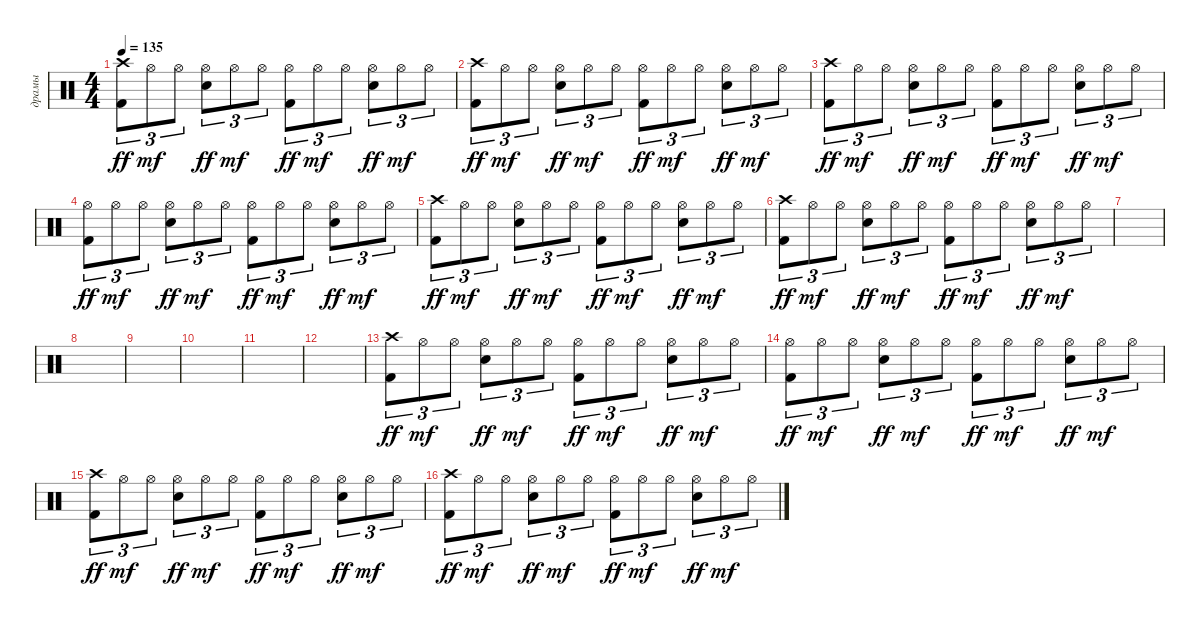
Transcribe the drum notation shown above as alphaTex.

\track ("драмы" "драмы") {instrument percussion}
\staff {score}
\articulation defaults
\ts (4 4)
\tempo 135
\clef neutral
\ks c
("Crash high (hit)" "Kick (hit) 2").8{tu (3 2) dy ff} "Hi-Hat (open)".8{tu (3 2) dy mf} "Hi-Hat (open)".8{tu (3 2)} ("Hi-Hat (open)" "Snare (hit) 2").8{tu (3 2) dy ff} "Hi-Hat (open)".8{tu (3 2) dy mf} "Hi-Hat (open)".8{tu (3 2)} ("Hi-Hat (open)" "Kick (hit) 2").8{tu (3 2) dy ff} "Hi-Hat (open)".8{tu (3 2) dy mf} "Hi-Hat (open)".8{tu (3 2)} ("Hi-Hat (open)" "Snare (hit) 2").8{tu (3 2) dy ff} "Hi-Hat (open)".8{tu (3 2) dy mf} "Hi-Hat (open)".8{tu (3 2)} |
("Crash high (hit)" "Kick (hit) 2").8{tu (3 2) dy ff} "Hi-Hat (open)".8{tu (3 2) dy mf} "Hi-Hat (open)".8{tu (3 2)} ("Hi-Hat (open)" "Snare (hit) 2").8{tu (3 2) dy ff} "Hi-Hat (open)".8{tu (3 2) dy mf} "Hi-Hat (open)".8{tu (3 2)} ("Hi-Hat (open)" "Kick (hit) 2").8{tu (3 2) dy ff} "Hi-Hat (open)".8{tu (3 2) dy mf} "Hi-Hat (open)".8{tu (3 2)} ("Hi-Hat (open)" "Snare (hit) 2").8{tu (3 2) dy ff} "Hi-Hat (open)".8{tu (3 2) dy mf} "Hi-Hat (open)".8{tu (3 2)} |
("Crash high (hit)" "Kick (hit) 2").8{tu (3 2) dy ff} "Hi-Hat (open)".8{tu (3 2) dy mf} "Hi-Hat (open)".8{tu (3 2)} ("Hi-Hat (open)" "Snare (hit) 2").8{tu (3 2) dy ff} "Hi-Hat (open)".8{tu (3 2) dy mf} "Hi-Hat (open)".8{tu (3 2)} ("Hi-Hat (open)" "Kick (hit) 2").8{tu (3 2) dy ff} "Hi-Hat (open)".8{tu (3 2) dy mf} "Hi-Hat (open)".8{tu (3 2)} ("Hi-Hat (open)" "Snare (hit) 2").8{tu (3 2) dy ff} "Hi-Hat (open)".8{tu (3 2) dy mf} "Hi-Hat (open)".8{tu (3 2)} |
("Hi-Hat (open)" "Kick (hit) 2").8{tu (3 2) dy ff} "Hi-Hat (open)".8{tu (3 2) dy mf} "Hi-Hat (open)".8{tu (3 2)} ("Hi-Hat (open)" "Snare (hit) 2").8{tu (3 2) dy ff} "Hi-Hat (open)".8{tu (3 2) dy mf} "Hi-Hat (open)".8{tu (3 2)} ("Hi-Hat (open)" "Kick (hit) 2").8{tu (3 2) dy ff} "Hi-Hat (open)".8{tu (3 2) dy mf} "Hi-Hat (open)".8{tu (3 2)} ("Hi-Hat (open)" "Snare (hit) 2").8{tu (3 2) dy ff} "Hi-Hat (open)".8{tu (3 2) dy mf} "Hi-Hat (open)".8{tu (3 2)} |
("Crash high (hit)" "Kick (hit) 2").8{tu (3 2) dy ff} "Hi-Hat (open)".8{tu (3 2) dy mf} "Hi-Hat (open)".8{tu (3 2)} ("Hi-Hat (open)" "Snare (hit) 2").8{tu (3 2) dy ff} "Hi-Hat (open)".8{tu (3 2) dy mf} "Hi-Hat (open)".8{tu (3 2)} ("Hi-Hat (open)" "Kick (hit) 2").8{tu (3 2) dy ff} "Hi-Hat (open)".8{tu (3 2) dy mf} "Hi-Hat (open)".8{tu (3 2)} ("Hi-Hat (open)" "Snare (hit) 2").8{tu (3 2) dy ff} "Hi-Hat (open)".8{tu (3 2) dy mf} "Hi-Hat (open)".8{tu (3 2)} |
("Crash high (hit)" "Kick (hit) 2").8{tu (3 2) dy ff} "Hi-Hat (open)".8{tu (3 2) dy mf} "Hi-Hat (open)".8{tu (3 2)} ("Hi-Hat (open)" "Snare (hit) 2").8{tu (3 2) dy ff} "Hi-Hat (open)".8{tu (3 2) dy mf} "Hi-Hat (open)".8{tu (3 2)} ("Hi-Hat (open)" "Kick (hit) 2").8{tu (3 2) dy ff} "Hi-Hat (open)".8{tu (3 2) dy mf} "Hi-Hat (open)".8{tu (3 2)} ("Hi-Hat (open)" "Snare (hit) 2").8{tu (3 2) dy ff} "Hi-Hat (open)".8{tu (3 2) dy mf} "Hi-Hat (open)".8{tu (3 2)} |
|
|
|
|
|
|
("Crash high (hit)" "Kick (hit) 2").8{tu (3 2) dy ff} "Hi-Hat (open)".8{tu (3 2) dy mf} "Hi-Hat (open)".8{tu (3 2)} ("Hi-Hat (open)" "Snare (hit) 2").8{tu (3 2) dy ff} "Hi-Hat (open)".8{tu (3 2) dy mf} "Hi-Hat (open)".8{tu (3 2)} ("Hi-Hat (open)" "Kick (hit) 2").8{tu (3 2) dy ff} "Hi-Hat (open)".8{tu (3 2) dy mf} "Hi-Hat (open)".8{tu (3 2)} ("Hi-Hat (open)" "Snare (hit) 2").8{tu (3 2) dy ff} "Hi-Hat (open)".8{tu (3 2) dy mf} "Hi-Hat (open)".8{tu (3 2)} |
("Hi-Hat (open)" "Kick (hit) 2").8{tu (3 2) dy ff} "Hi-Hat (open)".8{tu (3 2) dy mf} "Hi-Hat (open)".8{tu (3 2)} ("Hi-Hat (open)" "Snare (hit) 2").8{tu (3 2) dy ff} "Hi-Hat (open)".8{tu (3 2) dy mf} "Hi-Hat (open)".8{tu (3 2)} ("Hi-Hat (open)" "Kick (hit) 2").8{tu (3 2) dy ff} "Hi-Hat (open)".8{tu (3 2) dy mf} "Hi-Hat (open)".8{tu (3 2)} ("Hi-Hat (open)" "Snare (hit) 2").8{tu (3 2) dy ff} "Hi-Hat (open)".8{tu (3 2) dy mf} "Hi-Hat (open)".8{tu (3 2)} |
("Crash high (hit)" "Kick (hit) 2").8{tu (3 2) dy ff} "Hi-Hat (open)".8{tu (3 2) dy mf} "Hi-Hat (open)".8{tu (3 2)} ("Hi-Hat (open)" "Snare (hit) 2").8{tu (3 2) dy ff} "Hi-Hat (open)".8{tu (3 2) dy mf} "Hi-Hat (open)".8{tu (3 2)} ("Hi-Hat (open)" "Kick (hit) 2").8{tu (3 2) dy ff} "Hi-Hat (open)".8{tu (3 2) dy mf} "Hi-Hat (open)".8{tu (3 2)} ("Hi-Hat (open)" "Snare (hit) 2").8{tu (3 2) dy ff} "Hi-Hat (open)".8{tu (3 2) dy mf} "Hi-Hat (open)".8{tu (3 2)} |
("Crash high (hit)" "Kick (hit) 2").8{tu (3 2) dy ff} "Hi-Hat (open)".8{tu (3 2) dy mf} "Hi-Hat (open)".8{tu (3 2)} ("Hi-Hat (open)" "Snare (hit) 2").8{tu (3 2) dy ff} "Hi-Hat (open)".8{tu (3 2) dy mf} "Hi-Hat (open)".8{tu (3 2)} ("Hi-Hat (open)" "Kick (hit) 2").8{tu (3 2) dy ff} "Hi-Hat (open)".8{tu (3 2) dy mf} "Hi-Hat (open)".8{tu (3 2)} ("Hi-Hat (open)" "Snare (hit) 2").8{tu (3 2) dy ff} "Hi-Hat (open)".8{tu (3 2) dy mf} "Hi-Hat (open)".8{tu (3 2)}
